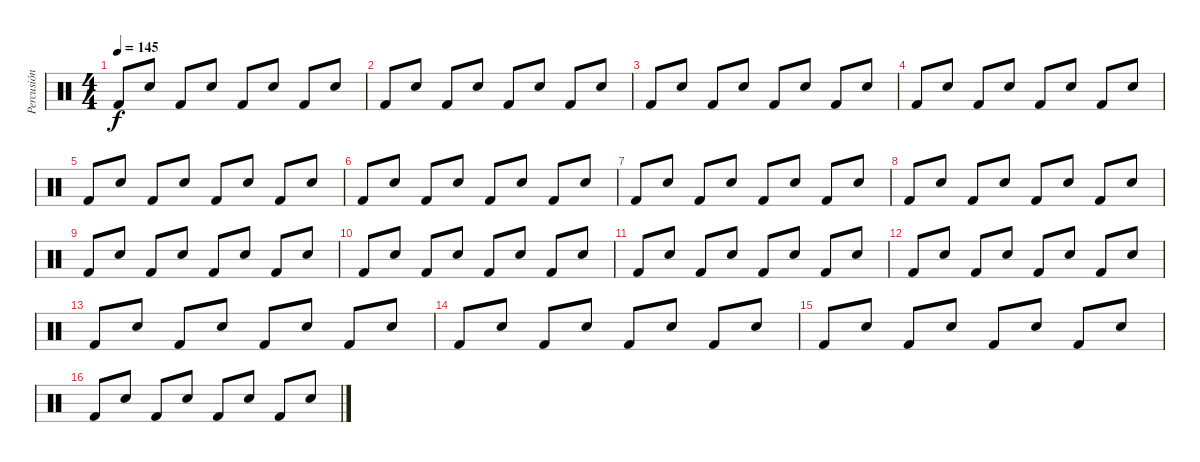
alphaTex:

\track ("Percusión" "Percusión") {instrument percussion}
\staff {score}
\articulation defaults
\ts (4 4)
\tempo 145
\clef neutral
\ks c "Kick (hit) 2".8{dy f} "Snare (hit) 2".8 "Kick (hit) 2".8 "Snare (hit) 2".8 "Kick (hit) 2".8 "Snare (hit) 2".8 "Kick (hit) 2".8 "Snare (hit) 2".8
|
"Kick (hit) 2".8 "Snare (hit) 2".8 "Kick (hit) 2".8 "Snare (hit) 2".8 "Kick (hit) 2".8 "Snare (hit) 2".8 "Kick (hit) 2".8 "Snare (hit) 2".8 |
"Kick (hit) 2".8 "Snare (hit) 2".8 "Kick (hit) 2".8 "Snare (hit) 2".8 "Kick (hit) 2".8 "Snare (hit) 2".8 "Kick (hit) 2".8 "Snare (hit) 2".8 |
"Kick (hit) 2".8 "Snare (hit) 2".8 "Kick (hit) 2".8 "Snare (hit) 2".8 "Kick (hit) 2".8 "Snare (hit) 2".8 "Kick (hit) 2".8 "Snare (hit) 2".8 |
"Kick (hit) 2".8 "Snare (hit) 2".8 "Kick (hit) 2".8 "Snare (hit) 2".8 "Kick (hit) 2".8 "Snare (hit) 2".8 "Kick (hit) 2".8 "Snare (hit) 2".8 |
"Kick (hit) 2".8 "Snare (hit) 2".8 "Kick (hit) 2".8 "Snare (hit) 2".8 "Kick (hit) 2".8 "Snare (hit) 2".8 "Kick (hit) 2".8 "Snare (hit) 2".8 |
"Kick (hit) 2".8 "Snare (hit) 2".8 "Kick (hit) 2".8 "Snare (hit) 2".8 "Kick (hit) 2".8 "Snare (hit) 2".8 "Kick (hit) 2".8 "Snare (hit) 2".8 |
"Kick (hit) 2".8 "Snare (hit) 2".8 "Kick (hit) 2".8 "Snare (hit) 2".8 "Kick (hit) 2".8 "Snare (hit) 2".8 "Kick (hit) 2".8 "Snare (hit) 2".8 |
"Kick (hit) 2".8 "Snare (hit) 2".8 "Kick (hit) 2".8 "Snare (hit) 2".8 "Kick (hit) 2".8 "Snare (hit) 2".8 "Kick (hit) 2".8 "Snare (hit) 2".8 |
"Kick (hit) 2".8 "Snare (hit) 2".8 "Kick (hit) 2".8 "Snare (hit) 2".8 "Kick (hit) 2".8 "Snare (hit) 2".8 "Kick (hit) 2".8 "Snare (hit) 2".8 |
"Kick (hit) 2".8 "Snare (hit) 2".8 "Kick (hit) 2".8 "Snare (hit) 2".8 "Kick (hit) 2".8 "Snare (hit) 2".8 "Kick (hit) 2".8 "Snare (hit) 2".8 |
"Kick (hit) 2".8 "Snare (hit) 2".8 "Kick (hit) 2".8 "Snare (hit) 2".8 "Kick (hit) 2".8 "Snare (hit) 2".8 "Kick (hit) 2".8 "Snare (hit) 2".8 |
"Kick (hit) 2".8 "Snare (hit) 2".8 "Kick (hit) 2".8 "Snare (hit) 2".8 "Kick (hit) 2".8 "Snare (hit) 2".8 "Kick (hit) 2".8 "Snare (hit) 2".8 |
"Kick (hit) 2".8 "Snare (hit) 2".8 "Kick (hit) 2".8 "Snare (hit) 2".8 "Kick (hit) 2".8 "Snare (hit) 2".8 "Kick (hit) 2".8 "Snare (hit) 2".8 |
"Kick (hit) 2".8 "Snare (hit) 2".8 "Kick (hit) 2".8 "Snare (hit) 2".8 "Kick (hit) 2".8 "Snare (hit) 2".8 "Kick (hit) 2".8 "Snare (hit) 2".8 |
"Kick (hit) 2".8 "Snare (hit) 2".8 "Kick (hit) 2".8 "Snare (hit) 2".8 "Kick (hit) 2".8 "Snare (hit) 2".8 "Kick (hit) 2".8 "Snare (hit) 2".8
